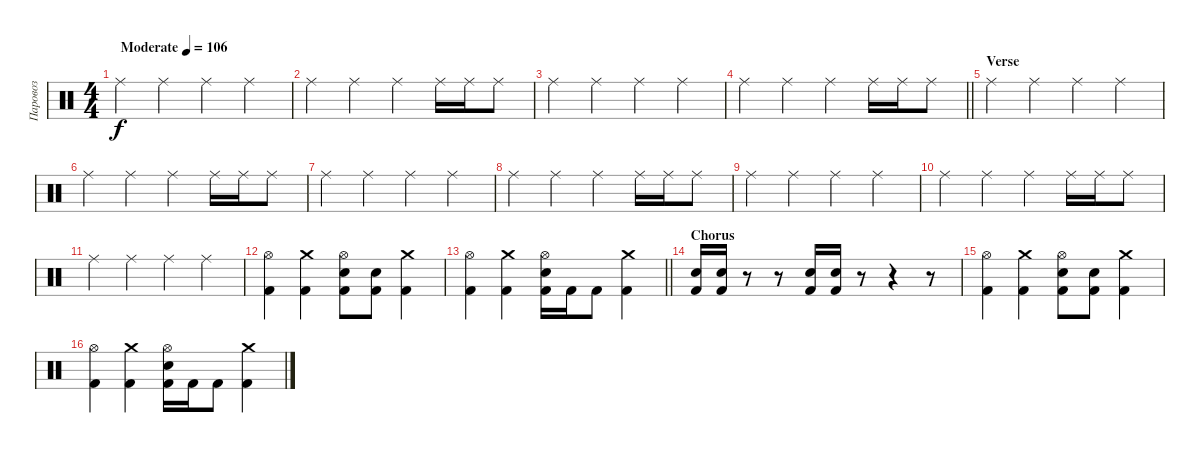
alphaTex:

\track ("Паровоз" "Паровоз") {instrument percussion}
\staff {score}
\articulation defaults
\ts (4 4)
\tempo (106 "Moderate")
\clef neutral
\ks c "Ride (middle)".4{dy f} "Ride (middle)".4 "Ride (middle)".4 "Ride (middle)".4
|
"Ride (middle)".4 "Ride (middle)".4 "Ride (middle)".4 "Ride (middle)".16 "Ride (middle)".16 "Ride (middle)".8 |
"Ride (middle)".4 "Ride (middle)".4 "Ride (middle)".4 "Ride (middle)".4 |
\barLineRight lightlight "Ride (middle)".4 "Ride (middle)".4 "Ride (middle)".4 "Ride (middle)".16 "Ride (middle)".16 "Ride (middle)".8
|
\section ("" "Verse")
"Ride (middle)".4 "Ride (middle)".4 "Ride (middle)".4 "Ride (middle)".4 |
"Ride (middle)".4 "Ride (middle)".4 "Ride (middle)".4 "Ride (middle)".16 "Ride (middle)".16 "Ride (middle)".8 |
"Ride (middle)".4 "Ride (middle)".4 "Ride (middle)".4 "Ride (middle)".4 |
"Ride (middle)".4 "Ride (middle)".4 "Ride (middle)".4 "Ride (middle)".16 "Ride (middle)".16 "Ride (middle)".8 |
"Ride (middle)".4 "Ride (middle)".4 "Ride (middle)".4 "Ride (middle)".4 |
"Ride (middle)".4 "Ride (middle)".4 "Ride (middle)".4 "Ride (middle)".16 "Ride (middle)".16 "Ride (middle)".8 |
"Ride (middle)".4 "Ride (middle)".4 "Ride (middle)".4 "Ride (middle)".4 |
("Hi-Hat (open)" "Kick (hit) 2").4 ("Crash medium (hit)" "Kick (hit) 2").4 ("Hi-Hat (open)" "Electric Snare (hit)" "Kick (hit) 2").8 ("Electric Snare (hit)" "Kick (hit) 2").8 ("Crash medium (hit)" "Kick (hit) 2").4 |
\barLineRight lightlight
("Hi-Hat (open)" "Kick (hit) 2").4 ("Crash medium (hit)" "Kick (hit) 2").4 ("Hi-Hat (open)" "Electric Snare (hit)" "Kick (hit) 2").16 "Kick (hit) 2".16 "Kick (hit) 2".8 ("Crash medium (hit)" "Kick (hit) 2").4 |
\section ("" "Chorus")
("Electric Snare (hit)" "Kick (hit) 2").16 ("Electric Snare (hit)" "Kick (hit) 2").16 r.8 r.8 ("Electric Snare (hit)" "Kick (hit) 2").16 ("Electric Snare (hit)" "Kick (hit) 2").16 r.8 r.4 r.8 |
("Hi-Hat (open)" "Kick (hit) 2").4 ("Crash medium (hit)" "Kick (hit) 2").4 ("Hi-Hat (open)" "Electric Snare (hit)" "Kick (hit) 2").8 ("Electric Snare (hit)" "Kick (hit) 2").8 ("Crash medium (hit)" "Kick (hit) 2").4 |
("Hi-Hat (open)" "Kick (hit) 2").4 ("Crash medium (hit)" "Kick (hit) 2").4 ("Hi-Hat (open)" "Electric Snare (hit)" "Kick (hit) 2").16 "Kick (hit) 2".16 "Kick (hit) 2".8 ("Crash medium (hit)" "Kick (hit) 2").4
